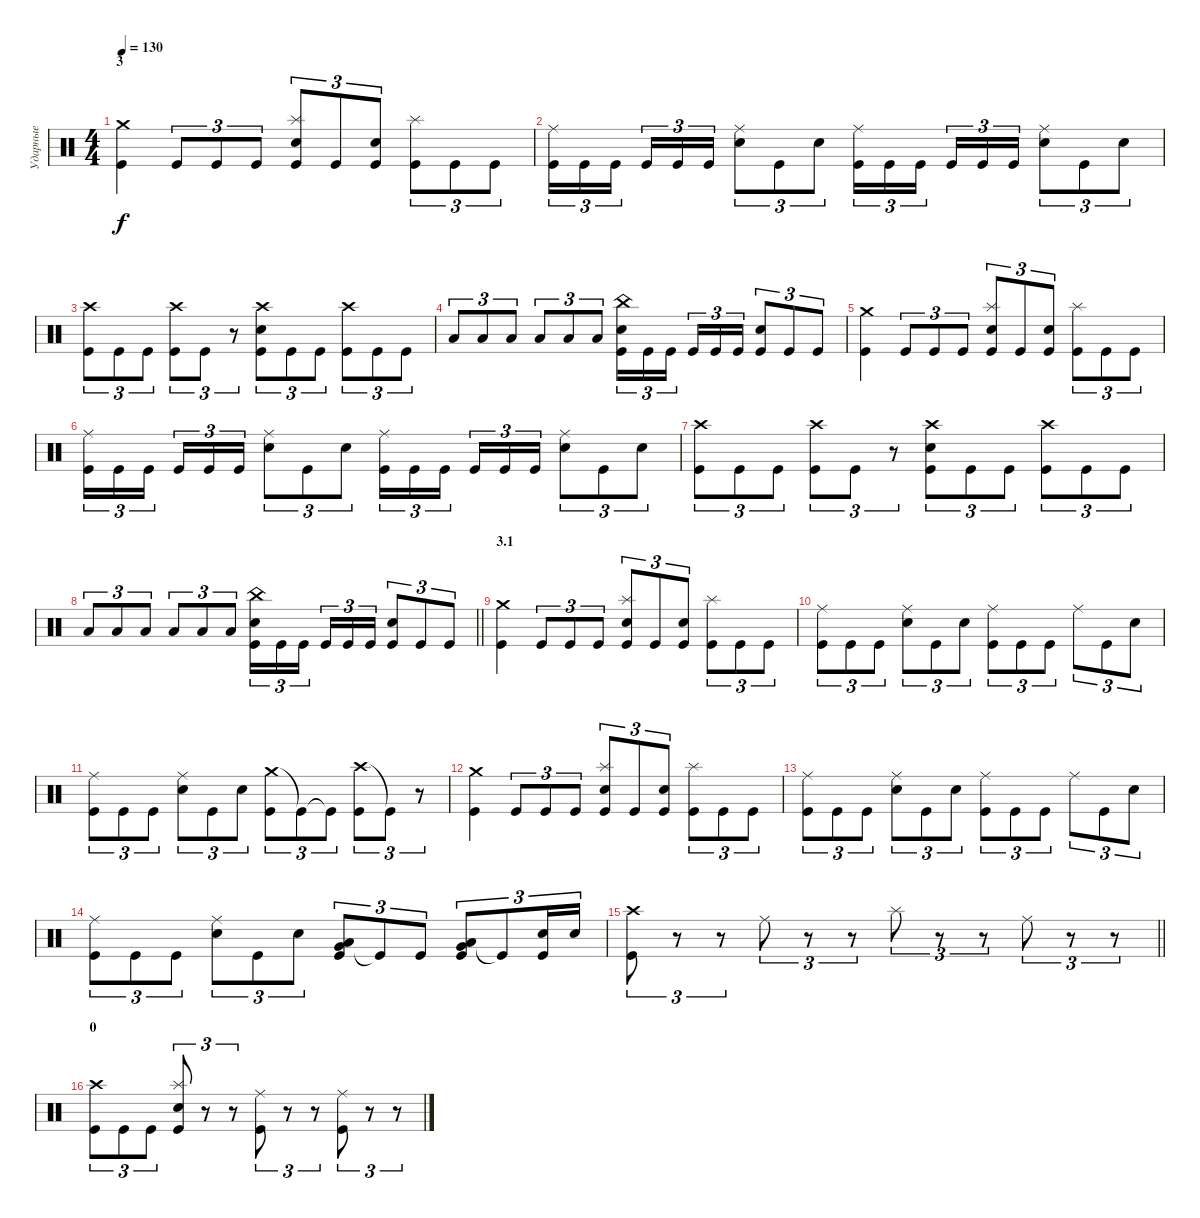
\track ("Ударные" "Ударные") {instrument percussion}
\staff {score}
\articulation defaults
\ts (4 4)
\section ("" "3")
\tempo 130
\clef neutral
\ks c
("Crash medium (hit)" "Kick (hit)").4{dy f} "Kick (hit)".8{tu (3 2)} "Kick (hit)".8{tu (3 2)} "Kick (hit)".8{tu (3 2)} ("Splash (hit)" "Electric Snare (hit)" "Kick (hit)").8{tu (3 2)} "Kick (hit)".8{tu (3 2)} ("Electric Snare (hit)" "Kick (hit)").8{tu (3 2)} ("Splash (hit)" "Kick (hit)").8{tu (3 2)} "Kick (hit)".8{tu (3 2)} "Kick (hit)".8{tu (3 2)} |
("Ride (middle)" "Kick (hit)").16{tu (3 2)} "Kick (hit)".16{tu (3 2)} "Kick (hit)".16{tu (3 2) beam splitsecondary} "Kick (hit)".16{tu (3 2)} "Kick (hit)".16{tu (3 2)} "Kick (hit)".16{tu (3 2)} ("Ride (middle)" "Electric Snare (hit)").8{tu (3 2)} "Kick (hit)".8{tu (3 2)} "Electric Snare (hit)".8{tu (3 2)} ("Ride (middle)" "Kick (hit)").16{tu (3 2)} "Kick (hit)".16{tu (3 2)} "Kick (hit)".16{tu (3 2) beam splitsecondary} "Kick (hit)".16{tu (3 2)} "Kick (hit)".16{tu (3 2)} "Kick (hit)".16{tu (3 2)} ("Ride (middle)" "Electric Snare (hit)").8{tu (3 2)} "Kick (hit)".8{tu (3 2)} "Electric Snare (hit)".8{tu (3 2)} |
("Crash high (hit)" "Kick (hit)").8{tu (3 2)} "Kick (hit)".8{tu (3 2)} "Kick (hit)".8{tu (3 2)} ("Crash high (hit)" "Kick (hit)").8{tu (3 2)} "Kick (hit)".8{tu (3 2)} r.8{tu (3 2)} ("Crash high (hit)" "Electric Snare (hit)" "Kick (hit)").8{tu (3 2)} "Kick (hit)".8{tu (3 2)} "Kick (hit)".8{tu (3 2)} ("Crash high (hit)" "Kick (hit)").8{tu (3 2)} "Kick (hit)".8{tu (3 2)} "Kick (hit)".8{tu (3 2)} |
"Low Tom (hit)".8{tu (3 2)} "Low Tom (hit)".8{tu (3 2)} "Low Tom (hit)".8{tu (3 2)} "Low Floor Tom (hit)".8{tu (3 2)} "Low Floor Tom (hit)".8{tu (3 2)} "Low Floor Tom (hit)".8{tu (3 2)} ("China (hit)" "Electric Snare (hit)" "Kick (hit)").16{tu (3 2)} "Kick (hit)".16{tu (3 2)} "Kick (hit)".16{tu (3 2) beam splitsecondary} "Kick (hit)".16{tu (3 2)} "Kick (hit)".16{tu (3 2)} "Kick (hit)".16{tu (3 2)} ("Electric Snare (hit)" "Kick (hit)").8{tu (3 2)} "Kick (hit)".8{tu (3 2)} "Kick (hit)".8{tu (3 2)} |
("Crash medium (hit)" "Kick (hit)").4 "Kick (hit)".8{tu (3 2)} "Kick (hit)".8{tu (3 2)} "Kick (hit)".8{tu (3 2)} ("Splash (hit)" "Electric Snare (hit)" "Kick (hit)").8{tu (3 2)} "Kick (hit)".8{tu (3 2)} ("Electric Snare (hit)" "Kick (hit)").8{tu (3 2)} ("Splash (hit)" "Kick (hit)").8{tu (3 2)} "Kick (hit)".8{tu (3 2)} "Kick (hit)".8{tu (3 2)} |
("Ride (middle)" "Kick (hit)").16{tu (3 2)} "Kick (hit)".16{tu (3 2)} "Kick (hit)".16{tu (3 2) beam splitsecondary} "Kick (hit)".16{tu (3 2)} "Kick (hit)".16{tu (3 2)} "Kick (hit)".16{tu (3 2)} ("Ride (middle)" "Electric Snare (hit)").8{tu (3 2)} "Kick (hit)".8{tu (3 2)} "Electric Snare (hit)".8{tu (3 2)} ("Ride (middle)" "Kick (hit)").16{tu (3 2)} "Kick (hit)".16{tu (3 2)} "Kick (hit)".16{tu (3 2) beam splitsecondary} "Kick (hit)".16{tu (3 2)} "Kick (hit)".16{tu (3 2)} "Kick (hit)".16{tu (3 2)} ("Ride (middle)" "Electric Snare (hit)").8{tu (3 2)} "Kick (hit)".8{tu (3 2)} "Electric Snare (hit)".8{tu (3 2)} |
("Crash high (hit)" "Kick (hit)").8{tu (3 2)} "Kick (hit)".8{tu (3 2)} "Kick (hit)".8{tu (3 2)} ("Crash high (hit)" "Kick (hit)").8{tu (3 2)} "Kick (hit)".8{tu (3 2)} r.8{tu (3 2)} ("Crash high (hit)" "Electric Snare (hit)" "Kick (hit)").8{tu (3 2)} "Kick (hit)".8{tu (3 2)} "Kick (hit)".8{tu (3 2)} ("Crash high (hit)" "Kick (hit)").8{tu (3 2)} "Kick (hit)".8{tu (3 2)} "Kick (hit)".8{tu (3 2)} |
\barLineRight lightlight "Low Tom (hit)".8{tu (3 2)} "Low Tom (hit)".8{tu (3 2)} "Low Tom (hit)".8{tu (3 2)} "Low Floor Tom (hit)".8{tu (3 2)} "Low Floor Tom (hit)".8{tu (3 2)} "Low Floor Tom (hit)".8{tu (3 2)}
("China (hit)" "Electric Snare (hit)" "Kick (hit)").16{tu (3 2)} "Kick (hit)".16{tu (3 2)} "Kick (hit)".16{tu (3 2) beam splitsecondary} "Kick (hit)".16{tu (3 2)} "Kick (hit)".16{tu (3 2)} "Kick (hit)".16{tu (3 2)} ("Electric Snare (hit)" "Kick (hit)").8{tu (3 2)} "Kick (hit)".8{tu (3 2)} "Kick (hit)".8{tu (3 2)} |
\section ("" "3.1")
("Crash medium (hit)" "Kick (hit)").4 "Kick (hit)".8{tu (3 2)} "Kick (hit)".8{tu (3 2)} "Kick (hit)".8{tu (3 2)} ("Splash (hit)" "Electric Snare (hit)" "Kick (hit)").8{tu (3 2)} "Kick (hit)".8{tu (3 2)} ("Electric Snare (hit)" "Kick (hit)").8{tu (3 2)} ("Splash (hit)" "Kick (hit)").8{tu (3 2)} "Kick (hit)".8{tu (3 2)} "Kick (hit)".8{tu (3 2)} |
("Ride (middle)" "Kick (hit)").8{tu (3 2)} "Kick (hit)".8{tu (3 2)} "Kick (hit)".8{tu (3 2)} ("Ride (middle)" "Electric Snare (hit)").8{tu (3 2)} "Kick (hit)".8{tu (3 2)} "Electric Snare (hit)".8{tu (3 2)} ("Ride (middle)" "Kick (hit)").8{tu (3 2)} "Kick (hit)".8{tu (3 2)} "Kick (hit)".8{tu (3 2)} "Ride (middle)".8{tu (3 2)} "Kick (hit)".8{tu (3 2)} "Electric Snare (hit)".8{tu (3 2)} |
("Ride (middle)" "Kick (hit)").8{tu (3 2)} "Kick (hit)".8{tu (3 2)} "Kick (hit)".8{tu (3 2)} ("Ride (middle)" "Electric Snare (hit)").8{tu (3 2)} "Kick (hit)".8{tu (3 2)} "Electric Snare (hit)".8{tu (3 2)} ("Crash medium (hit)" "Kick (hit)").8{tu (3 2)} "Kick (hit)"{t}.8{tu (3 2)} "Kick (hit)"{t}.8{tu (3 2)} ("Crash high (hit)" "Kick (hit)").8{tu (3 2)} "Kick (hit)"{t}.8{tu (3 2)} r.8{tu (3 2)} |
("Crash medium (hit)" "Kick (hit)").4 "Kick (hit)".8{tu (3 2)} "Kick (hit)".8{tu (3 2)} "Kick (hit)".8{tu (3 2)} ("Splash (hit)" "Electric Snare (hit)" "Kick (hit)").8{tu (3 2)} "Kick (hit)".8{tu (3 2)} ("Electric Snare (hit)" "Kick (hit)").8{tu (3 2)} ("Splash (hit)" "Kick (hit)").8{tu (3 2)} "Kick (hit)".8{tu (3 2)} "Kick (hit)".8{tu (3 2)} |
("Ride (middle)" "Kick (hit)").8{tu (3 2)} "Kick (hit)".8{tu (3 2)} "Kick (hit)".8{tu (3 2)} ("Ride (middle)" "Electric Snare (hit)").8{tu (3 2)} "Kick (hit)".8{tu (3 2)} "Electric Snare (hit)".8{tu (3 2)} ("Ride (middle)" "Kick (hit)").8{tu (3 2)} "Kick (hit)".8{tu (3 2)} "Kick (hit)".8{tu (3 2)} "Ride (middle)".8{tu (3 2)} "Kick (hit)".8{tu (3 2)} "Electric Snare (hit)".8{tu (3 2)} |
("Ride (middle)" "Kick (hit)").8{tu (3 2)} "Kick (hit)".8{tu (3 2)} "Kick (hit)".8{tu (3 2)} ("Ride (middle)" "Electric Snare (hit)").8{tu (3 2)} "Kick (hit)".8{tu (3 2)} "Electric Snare (hit)".8{tu (3 2)} ("Very Low Tom (hit)" "Low Tom (hit)" "Kick (hit)").8{tu (3 2)} "Kick (hit)"{t}.8{tu (3 2)} "Kick (hit)".8{tu (3 2)} ("Low Floor Tom (hit)" "Very Low Tom (hit)" "Kick (hit)").8{tu (3 2)} "Kick (hit)"{t}.8{tu (3 2)} ("Electric Snare (hit)" "Kick (hit)").16{tu (3 2)} "Electric Snare (hit)".16{tu (3 2)} |
\barLineRight lightlight
("Crash high (hit)" "Kick (hit)").8{tu (3 2)} r.8{tu (3 2)} r.8{tu (3 2)} "Ride (middle)".8{tu (3 2)} r.8{tu (3 2)} r.8{tu (3 2)} "Splash (hit)".8{tu (3 2)} r.8{tu (3 2)} r.8{tu (3 2)} "Ride (middle)".8{tu (3 2)} r.8{tu (3 2)} r.8{tu (3 2)} |
\section ("" "0")
("Crash high (hit)" "Kick (hit)").8{tu (3 2)} "Kick (hit)".8{tu (3 2)} "Kick (hit)".8{tu (3 2)} ("Splash (hit)" "Electric Snare (hit)" "Kick (hit)").8{tu (3 2)} r.8{tu (3 2)} r.8{tu (3 2)} ("Ride (middle)" "Kick (hit)").8{tu (3 2)} r.8{tu (3 2)} r.8{tu (3 2)} ("Ride (middle)" "Kick (hit)").8{tu (3 2)} r.8{tu (3 2)} r.8{tu (3 2)}
